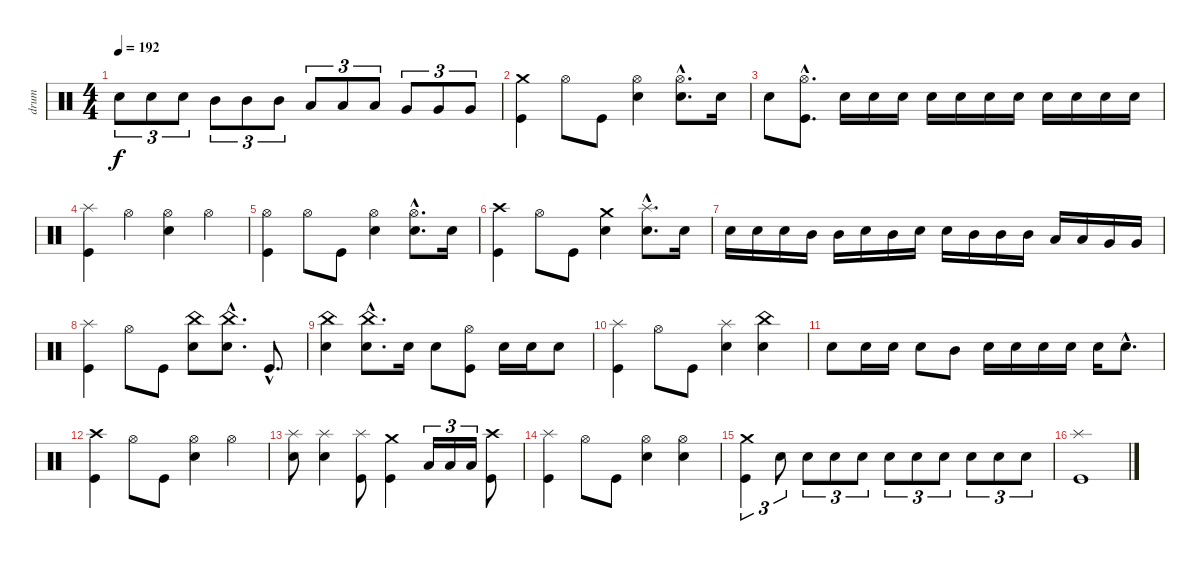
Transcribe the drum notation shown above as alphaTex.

\track ("drum" "drum") {instrument percussion}
\staff {score}
\articulation defaults
\ts (4 4)
\tempo 192
\clef neutral
\ks c "Electric Snare (hit)".8{tu (3 2) dy f} "Electric Snare (hit)".8{tu (3 2)} "Electric Snare (hit)".8{tu (3 2)} "Mid Tom (hit)".8{tu (3 2)} "Mid Tom (hit)".8{tu (3 2)} "Mid Tom (hit)".8{tu (3 2)} "Low Tom (hit)".8{tu (3 2)} "Low Tom (hit)".8{tu (3 2)} "Low Tom (hit)".8{tu (3 2)} "Very Low Tom (hit)".8{tu (3 2)} "Very Low Tom (hit)".8{tu (3 2)} "Very Low Tom (hit)".8{tu (3 2)}
|
("Kick (hit)" "Crash medium (hit)").4 "Hi-Hat (open)".8 "Kick (hit)".8 ("Electric Snare (hit)" "Hi-Hat (open)").4 ("Electric Snare (hit)"{hac} "Hi-Hat (open)"{hac}).8{d} "Electric Snare (hit)".16 |
"Electric Snare (hit)".8 ("Kick (hit)"{hac} "Hi-Hat (open)"{hac}).8{d} "Electric Snare (hit)".16 "Electric Snare (hit)".16 "Electric Snare (hit)".16 "Electric Snare (hit)".16 "Electric Snare (hit)".16 "Electric Snare (hit)".16 "Electric Snare (hit)".16 "Electric Snare (hit)".16 "Electric Snare (hit)".16 "Electric Snare (hit)".16 "Electric Snare (hit)".16 |
("Kick (hit)" "Splash (hit)").4 "Hi-Hat (open)".4 ("Electric Snare (hit)" "Hi-Hat (open)").4 "Hi-Hat (open)".4 |
("Kick (hit)" "Hi-Hat (open)").4 "Hi-Hat (open)".8 "Kick (hit)".8 ("Electric Snare (hit)" "Hi-Hat (open)").4 ("Electric Snare (hit)"{hac} "Hi-Hat (open)"{hac}).8{d} "Electric Snare (hit)".16 |
("Kick (hit)" "Crash high (hit)").4 "Hi-Hat (open)".8 "Kick (hit)".8 ("Electric Snare (hit)" "Crash medium (hit)").4 ("Electric Snare (hit)"{hac} "Splash (hit)"{hac}).8{d} "Electric Snare (hit)".16 |
"Electric Snare (hit)".16 "Electric Snare (hit)".16 "Electric Snare (hit)".16 "Mid Tom (hit)".16 "Mid Tom (hit)".16 "Electric Snare (hit)".16 "Mid Tom (hit)".16 "Electric Snare (hit)".16 "Electric Snare (hit)".16 "Mid Tom (hit)".16 "Mid Tom (hit)".16 "Mid Tom (hit)".16 "Low Tom (hit)".16 "Low Tom (hit)".16 "Very Low Tom (hit)".16 "Very Low Tom (hit)".16 |
("Kick (hit)" "Splash (hit)").4 "Hi-Hat (open)".8 "Kick (hit)".8 ("Electric Snare (hit)" "China (hit)").8 ("Electric Snare (hit)"{hac} "China (hit)"{hac}).8{d} "Kick (hit)"{hac}.8{d} |
("Electric Snare (hit)" "China (hit)").4 ("Electric Snare (hit)"{hac} "China (hit)"{hac}).8{d} "Electric Snare (hit)".16 "Electric Snare (hit)".8 ("Kick (hit)" "Hi-Hat (open)").8 "Electric Snare (hit)".16 "Electric Snare (hit)".16 "Electric Snare (hit)".8 |
("Kick (hit)" "Splash (hit)").4 "Hi-Hat (open)".8 "Kick (hit)".8 ("Electric Snare (hit)" "Splash (hit)").4 ("Electric Snare (hit)" "China (hit)").4 |
"Electric Snare (hit)".8 "Electric Snare (hit)".16 "Electric Snare (hit)".16 "Electric Snare (hit)".8 "Mid Tom (hit)".8 "Electric Snare (hit)".16 "Electric Snare (hit)".16 "Electric Snare (hit)".16 "Electric Snare (hit)".16 "Electric Snare (hit)".16 "Electric Snare (hit)"{hac}.8{d} |
("Kick (hit)" "Crash high (hit)").4 "Hi-Hat (open)".8 "Kick (hit)".8 ("Electric Snare (hit)" "Hi-Hat (open)").4 "Hi-Hat (open)".4 |
("Electric Snare (hit)" "Splash (hit)").8 ("Electric Snare (hit)" "Splash (hit)").4 ("Kick (hit)" "Splash (hit)").8 ("Kick (hit)" "Crash medium (hit)").4 "Low Tom (hit)".16{tu (3 2)} "Low Tom (hit)".16{tu (3 2)} "Low Tom (hit)".16{tu (3 2)} ("Kick (hit)" "Crash high (hit)").8 |
("Kick (hit)" "Splash (hit)").4 "Hi-Hat (open)".8 "Kick (hit)".8 ("Electric Snare (hit)" "Hi-Hat (open)").4 ("Electric Snare (hit)" "Hi-Hat (open)").4 |
("Kick (hit)" "Crash medium (hit)").4{tu (3 2)} "Electric Snare (hit)".8{tu (3 2)} "Electric Snare (hit)".8{tu (3 2)} "Electric Snare (hit)".8{tu (3 2)} "Electric Snare (hit)".8{tu (3 2)} "Electric Snare (hit)".8{tu (3 2)} "Electric Snare (hit)".8{tu (3 2)} "Electric Snare (hit)".8{tu (3 2)} "Electric Snare (hit)".8{tu (3 2)} "Electric Snare (hit)".8{tu (3 2)} "Electric Snare (hit)".8{tu (3 2)} |
("Kick (hit)" "Splash (hit)").1
